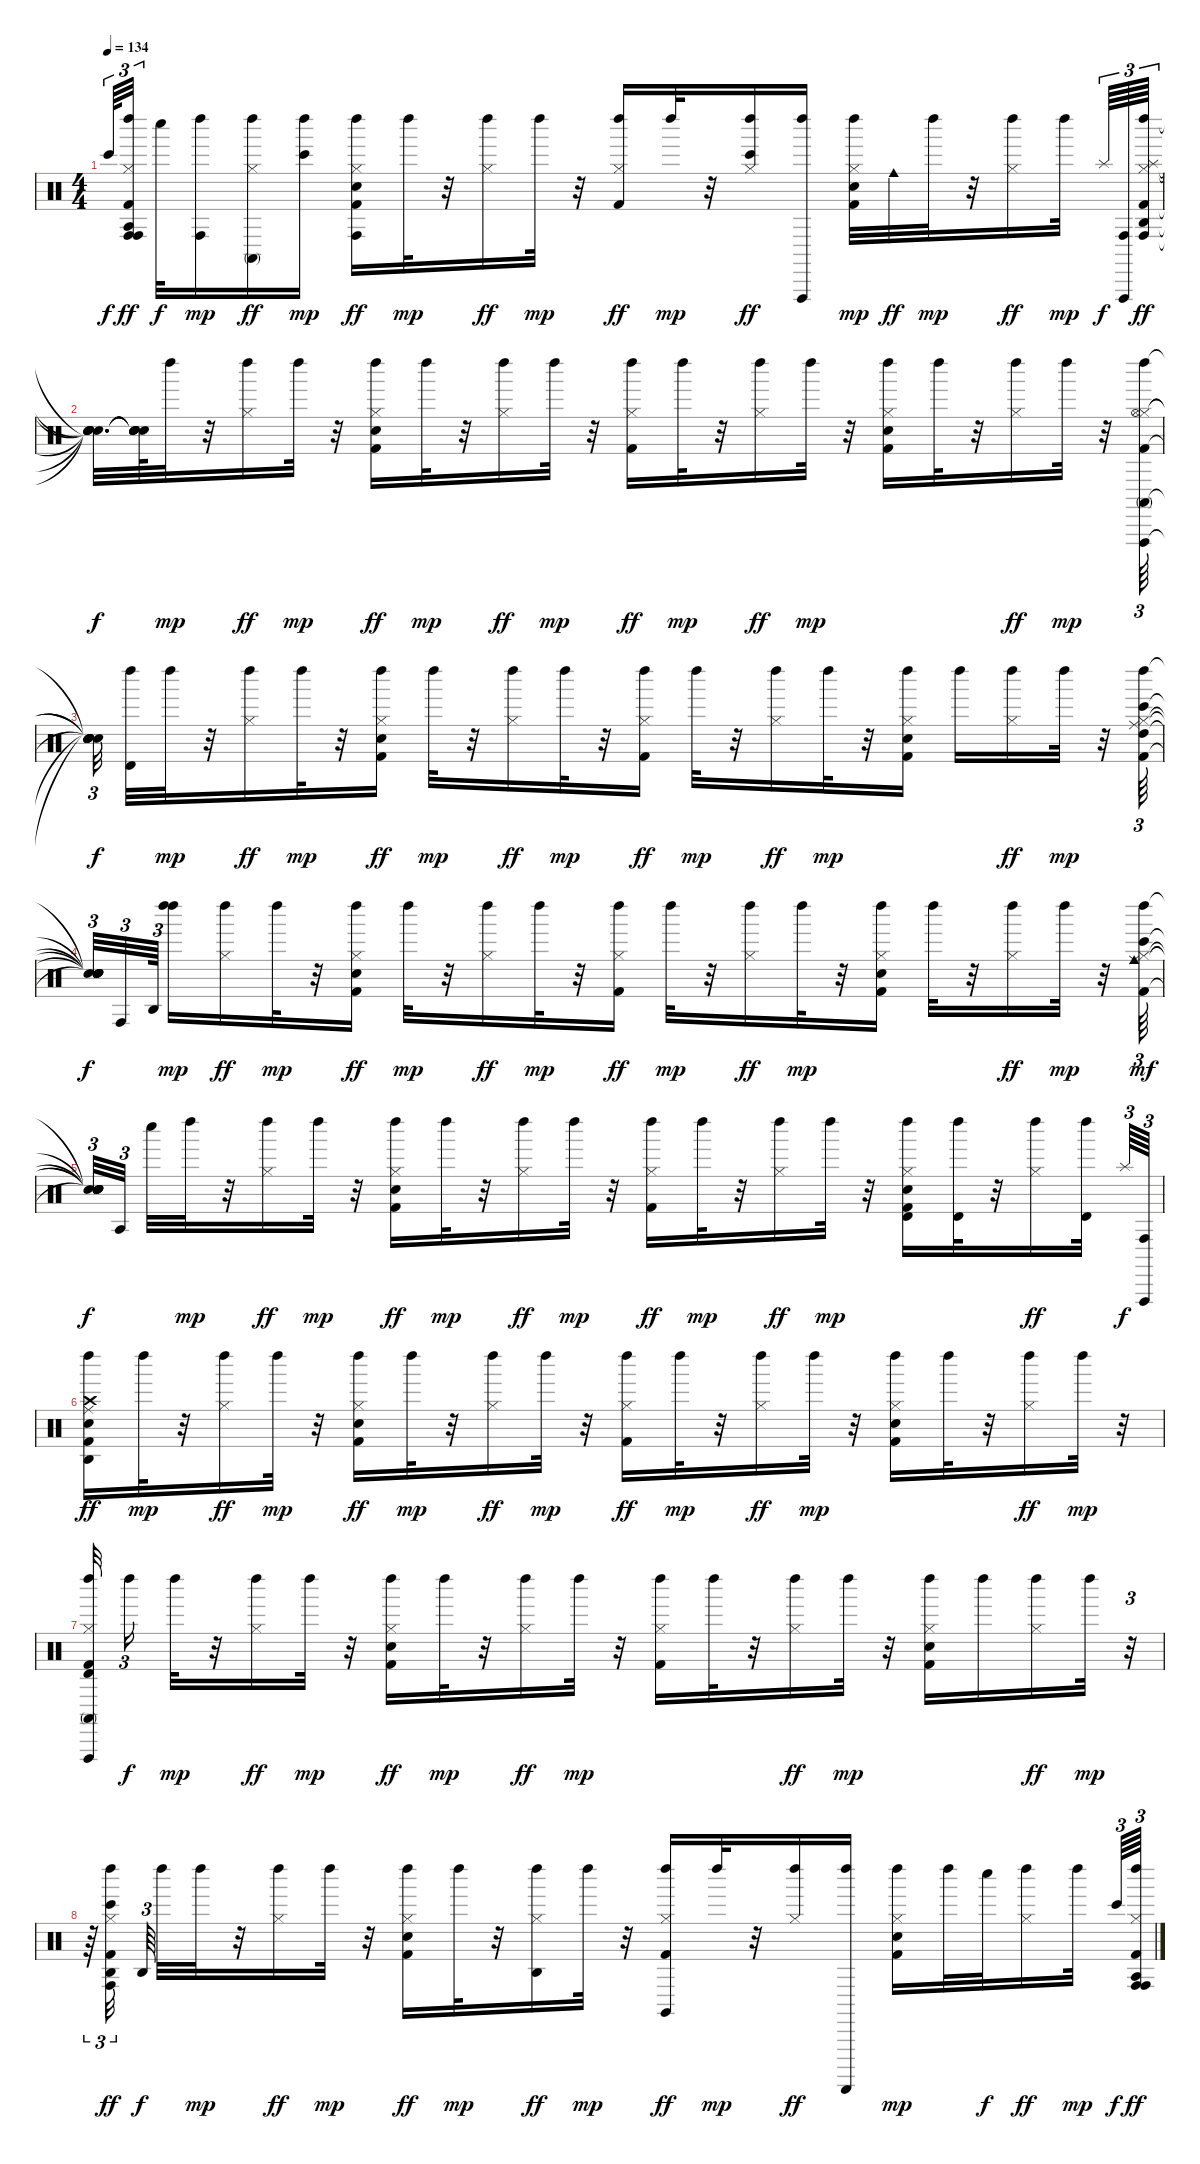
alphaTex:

\track "" {instrument percussion}
\staff {score}
\articulation defaults
\ts (4 4)
\tempo 134
\clef neutral
\ks c "Bongo High (hit)".64{tu (3 2) dy f}
("Conga high (hit)" "Kick (hit) 2" "Hi-Hat (closed)" "Left Maraca (hit)" "Agogo tow (hit)" "Conga high (hit)").32{tu (3 2) dy ff beam splitsecondary} "Whistle low (hit)".32{dy f} ("Conga high (hit)" "Left Maraca (hit)").16{dy mp} ("Hi-Hat (closed)" "Left Maraca (hit)" "Conga high (mute)").16{dy ff} ("Bongo High (hit)" "Left Maraca (hit)").16{dy mp} ("Conga high (hit)" "Left Maraca (hit)" "Hi-Hat (closed)" "Snare (hit) 2" "Kick (hit) 2").16{dy ff} "Left Maraca (hit)".32{dy mp} r.32 ("Left Maraca (hit)" "Hi-Hat (closed)").16{dy ff} "Left Maraca (hit)".32{dy mp} r.32 ("Left Maraca (hit)" "Hi-Hat (closed)" "Kick (hit) 2").16{dy ff} "Left Maraca (hit)".32{dy mp} r.32 ("Left Maraca (hit)" "Hi-Hat (closed)" "Bongo High (hit)").16{dy ff} ("Left Maraca (hit)" "Vibraslap (hit)").16 ("Kick (hit) 2" "Snare (hit) 2" "Hi-Hat (closed)" "Left Maraca (hit)").32{dy mp} "Cowbell medium (hit)".32{dy ff} "Left Maraca (hit)".32{dy mp} r.32 ("Hi-Hat (closed)" "Left Maraca (hit)").16{dy ff} "Left Maraca (hit)".32{dy mp beam splitsecondary} "Splash (hit)".64{tu (3 2) dy f} ("Conga high (hit)" "Vibraslap (hit)").64{tu (3 2)} ("Agogo high (hit)" "Splash (hit)" "Kick (hit) 2" "Hi-Hat (closed)" "Left Maraca (hit)" "Conga high (hit)").64{tu (3 2) dy ff} |
("Snare (hit)"{t} "Snare (hit)"{t} "Snare (hit)"{t} "Snare (hit)"{t} "Snare (hit)"{t} "Snare (hit)"{t}).32{d dy f} ("Snare (hit)"{t} "Snare (hit)"{t} "Snare (hit)"{t} "Snare (hit)"{t} "Snare (hit)"{t}).64 "Left Maraca (hit)".32{dy mp} r.32 ("Hi-Hat (closed)" "Left Maraca (hit)").16{dy ff} "Left Maraca (hit)".32{dy mp} r.32 ("Left Maraca (hit)" "Hi-Hat (closed)" "Snare (hit) 2" "Kick (hit) 2").16{dy ff} "Left Maraca (hit)".32{dy mp} r.32 ("Left Maraca (hit)" "Hi-Hat (closed)").16{dy ff} "Left Maraca (hit)".32{dy mp} r.32 ("Left Maraca (hit)" "Hi-Hat (closed)" "Kick (hit) 2").16{dy ff} "Left Maraca (hit)".32{dy mp} r.32 ("Left Maraca (hit)" "Hi-Hat (closed)").16{dy ff} "Left Maraca (hit)".32{dy mp} r.32 ("Kick (hit) 2" "Snare (hit) 2" "Hi-Hat (closed)" "Left Maraca (hit)").16 "Left Maraca (hit)".32 r.32 ("Hi-Hat (closed)" "Left Maraca (hit)").16{dy ff} "Left Maraca (hit)".32{dy mp} r.32 ("Vibraslap (hit)" "Conga high (mute)" "Kick (hit) 2" "Hi-Hat (closed)" "Left Maraca (hit)" "Hi-Hat (open)").64{tu (3 2)} |
("Snare (hit)"{t} "Snare (hit)"{t} "Snare (hit)"{t} "Snare (hit)"{t} "Snare (hit)"{t} "Snare (hit)"{t}).32{tu (3 2) dy f beam splitsecondary} ("Timbale high (hit)" "Left Maraca (hit)").32 "Left Maraca (hit)".32{dy mp} r.32 ("Hi-Hat (closed)" "Left Maraca (hit)").16{dy ff} "Left Maraca (hit)".32{dy mp} r.32 ("Left Maraca (hit)" "Hi-Hat (closed)" "Snare (hit) 2" "Kick (hit) 2").16{dy ff} "Left Maraca (hit)".32{dy mp} r.32 ("Left Maraca (hit)" "Hi-Hat (closed)").16{dy ff} "Left Maraca (hit)".32{dy mp} r.32 ("Left Maraca (hit)" "Hi-Hat (closed)" "Kick (hit) 2").16{dy ff} "Left Maraca (hit)".32{dy mp} r.32 ("Left Maraca (hit)" "Hi-Hat (closed)").16{dy ff} "Left Maraca (hit)".32{dy mp} r.32 ("Kick (hit) 2" "Snare (hit) 2" "Hi-Hat (closed)" "Left Maraca (hit)").16 "Left Maraca (hit)".16 ("Hi-Hat (closed)" "Left Maraca (hit)").16{dy ff} "Left Maraca (hit)".32{dy mp} r.32 ("Bongo High (hit)" "Kick (hit) 2" "Hi-Hat (closed)" "Left Maraca (hit)" "High Tom (hit)" "Ride (middle)").64{tu (3 2)} |
("Snare (hit)"{t} "Snare (hit)"{t} "Snare (hit)"{t} "Snare (hit)"{t} "Snare (hit)"{t} "Snare (hit)"{t}).32{tu (3 2) dy f} "Conga high (hit)".32{tu (3 2)} "Agogo high (hit)".64{tu (3 2) beam splitsecondary} ("Left Maraca (hit)" "Left Maraca (hit)").16{dy mp} ("Left Maraca (hit)" "Hi-Hat (closed)").16{dy ff} "Left Maraca (hit)".32{dy mp} r.32 ("Left Maraca (hit)" "Hi-Hat (closed)" "Snare (hit) 2" "Kick (hit) 2").16{dy ff} "Left Maraca (hit)".32{dy mp} r.32 ("Left Maraca (hit)" "Hi-Hat (closed)").16{dy ff} "Left Maraca (hit)".32{dy mp} r.32 ("Left Maraca (hit)" "Hi-Hat (closed)" "Kick (hit) 2").16{dy ff} "Left Maraca (hit)".32{dy mp} r.32 ("Hi-Hat (closed)" "Left Maraca (hit)").16{dy ff} "Left Maraca (hit)".32{dy mp} r.32 ("Kick (hit) 2" "Snare (hit) 2" "Hi-Hat (closed)" "Left Maraca (hit)").16 "Left Maraca (hit)".32 r.32 ("Hi-Hat (closed)" "Left Maraca (hit)").16{dy ff} "Left Maraca (hit)".32{dy mp} r.32 ("Bongo High (hit)" "Kick (hit) 2" "Hi-Hat (closed)" "Left Maraca (hit)" "Ride (middle)" "Cowbell medium (hit)").64{tu (3 2) dy mf} |
("Snare (hit)"{t} "Snare (hit)"{t} "Snare (hit)"{t} "Snare (hit)"{t} "Snare (hit)"{t} "Snare (hit)"{t}).32{tu (3 2) dy f} "Agogo tow (hit)".32{tu (3 2) beam splitsecondary} "Whistle low (hit)".32 "Left Maraca (hit)".32{dy mp} r.32 ("Left Maraca (hit)" "Hi-Hat (closed)").16{dy ff} "Left Maraca (hit)".32{dy mp} r.32 ("Left Maraca (hit)" "Hi-Hat (closed)" "Snare (hit) 2" "Kick (hit) 2").16{dy ff} "Left Maraca (hit)".32{dy mp} r.32 ("Left Maraca (hit)" "Hi-Hat (closed)").16{dy ff} "Left Maraca (hit)".32{dy mp} r.32 ("Left Maraca (hit)" "Hi-Hat (closed)" "Kick (hit) 2").16{dy ff} "Left Maraca (hit)".32{dy mp} r.32 ("Hi-Hat (closed)" "Left Maraca (hit)").16{dy ff} "Left Maraca (hit)".32{dy mp} r.32 ("Kick (hit) 2" "Snare (hit) 2" "Hi-Hat (closed)" "Timbale high (hit)" "Left Maraca (hit)").16 ("Left Maraca (hit)" "Timbale high (hit)").32 r.32 ("Hi-Hat (closed)" "Left Maraca (hit)").16{dy ff} ("Left Maraca (hit)" "Timbale high (hit)").32{beam splitsecondary} "Splash (hit)".64{tu (3 2) dy f} ("Conga high (hit)" "Vibraslap (hit)").64{tu (3 2)} |
("Agogo high (hit)" "Kick (hit) 2" "Crash high (hit)" "Left Maraca (hit)" "Hand Clap (hit)" "Ride (middle)").16{dy ff} "Left Maraca (hit)".32{dy mp} r.32 ("Left Maraca (hit)" "Hi-Hat (closed)").16{dy ff} "Left Maraca (hit)".32{dy mp} r.32 ("Left Maraca (hit)" "Hi-Hat (closed)" "Snare (hit) 2" "Kick (hit) 2").16{dy ff} "Left Maraca (hit)".32{dy mp} r.32 ("Left Maraca (hit)" "Hi-Hat (closed)").16{dy ff} "Left Maraca (hit)".32{dy mp} r.32 ("Left Maraca (hit)" "Hi-Hat (closed)" "Kick (hit) 2").16{dy ff} "Left Maraca (hit)".32{dy mp} r.32 ("Hi-Hat (closed)" "Left Maraca (hit)").16{dy ff} "Left Maraca (hit)".32{dy mp} r.32 ("Kick (hit) 2" "Snare (hit) 2" "Hi-Hat (closed)" "Left Maraca (hit)").16 "Left Maraca (hit)".32 r.32 ("Hi-Hat (closed)" "Left Maraca (hit)").16{dy ff} "Left Maraca (hit)".32{dy mp} r.32 |
("Vibraslap (hit)" "Conga high (mute)" "Left Maraca (hit)" "Hi-Hat (closed)" "Kick (hit) 2" "Timbale high (hit)").32{beam splitsecondary} "Left Maraca (hit)".16{tu (3 2) dy f} "Left Maraca (hit)".32{dy mp} r.32 ("Left Maraca (hit)" "Hi-Hat (closed)").16{dy ff} "Left Maraca (hit)".32{dy mp} r.32 ("Left Maraca (hit)" "Hi-Hat (closed)" "Snare (hit) 2" "Kick (hit) 2").16{dy ff} "Left Maraca (hit)".32{dy mp} r.32 ("Left Maraca (hit)" "Hi-Hat (closed)").16{dy ff} "Left Maraca (hit)".32{dy mp} r.32 ("Kick (hit) 2" "Hi-Hat (closed)" "Left Maraca (hit)").16 "Left Maraca (hit)".32 r.32 ("Hi-Hat (closed)" "Left Maraca (hit)").16{dy ff} "Left Maraca (hit)".32{dy mp} r.32 ("Kick (hit) 2" "Snare (hit) 2" "Hi-Hat (closed)" "Left Maraca (hit)").16 "Left Maraca (hit)".16 ("Hi-Hat (closed)" "Left Maraca (hit)").16{dy ff} "Left Maraca (hit)".32{dy mp} r.32{tu (3 2)} |
r.64{tu (3 2)} ("Bongo High (hit)" "Left Maraca (hit)" "Hi-Hat (closed)" "Kick (hit) 2" "Agogo high (hit)" "Conga high (hit)").32{tu (3 2) dy ff beam splitsecondary} "Agogo high (hit)".64{tu (3 2) dy f beam splitsecondary} "Left Maraca (hit)".32 "Left Maraca (hit)".32{dy mp} r.32 ("Left Maraca (hit)" "Hi-Hat (closed)").16{dy ff} "Left Maraca (hit)".32{dy mp} r.32 ("Left Maraca (hit)" "Hi-Hat (closed)" "Snare (hit) 2" "Kick (hit) 2").16{dy ff} "Left Maraca (hit)".32{dy mp} r.32 ("Left Maraca (hit)" "Hi-Hat (closed)" "Agogo high (hit)").16{dy ff} "Left Maraca (hit)".32{dy mp} r.32 ("Kick (hit) 2" "Hi-Hat (closed)" "Left Maraca (hit)" "Claves (hit)").16{dy ff} "Left Maraca (hit)".32{dy mp} r.32 ("Hi-Hat (closed)" "Left Maraca (hit)").16{dy ff} ("Left Maraca (hit)" "Guiro (scrap-return)").16 ("Kick (hit) 2" "Snare (hit) 2" "Hi-Hat (closed)" "Left Maraca (hit)").16{dy mp} "Left Maraca (hit)".32 "Whistle low (hit)".32{dy f} ("Hi-Hat (closed)" "Left Maraca (hit)").16{dy ff} "Left Maraca (hit)".32{dy mp beam splitsecondary} "Bongo High (hit)".64{tu (3 2) dy f} ("Conga high (hit)" "Left Maraca (hit)" "Hi-Hat (closed)" "Kick (hit) 2" "Agogo tow (hit)" "Conga high (hit)").64{tu (3 2) dy ff}
